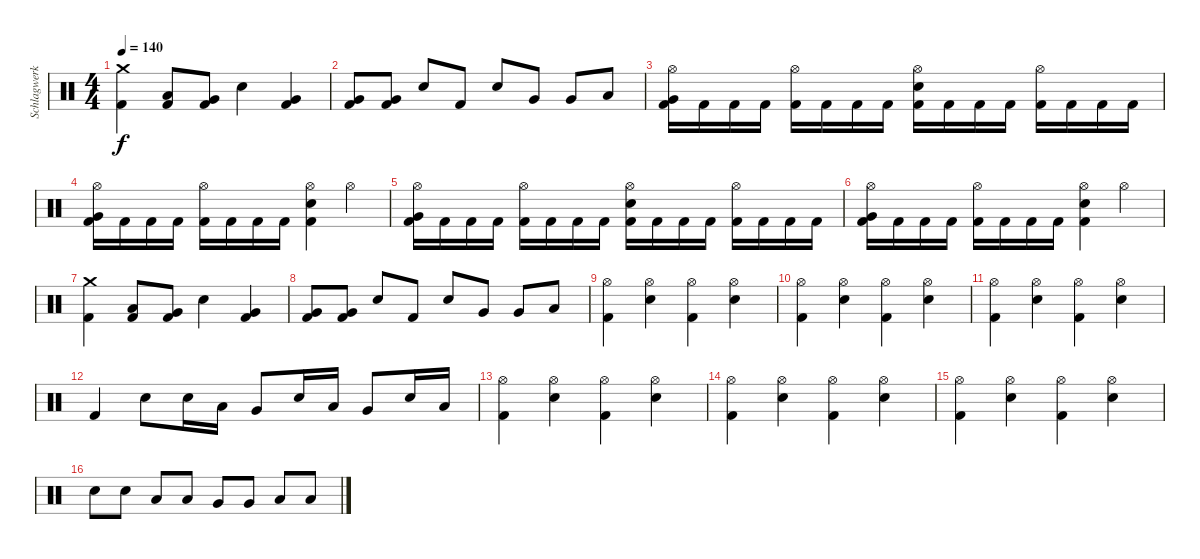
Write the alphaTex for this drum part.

\track ("Schlagwerk" "Schlagwerk") {instrument percussion}
\staff {score}
\articulation defaults
\ts (4 4)
\tempo 140
\clef neutral
\ks c
("Crash medium (hit)" "Kick (hit) 2").4{dy f} ("Low Tom (hit)" "Kick (hit) 2").8 ("Very Low Tom (hit)" "Kick (hit) 2").8 "Snare (hit) 2".4 ("Very Low Tom (hit)" "Kick (hit) 2").4 |
("Very Low Tom (hit)" "Kick (hit) 2").8 ("Very Low Tom (hit)" "Kick (hit) 2").8 "Snare (hit) 2".8 "Kick (hit) 2".8 "Snare (hit) 2".8 "Very Low Tom (hit)".8 "Very Low Tom (hit)".8 "Low Floor Tom (hit)".8 |
("Hi-Hat (open)" "Very Low Tom (hit)" "Kick (hit) 2").16 "Kick (hit) 2".16 "Kick (hit) 2".16 "Kick (hit) 2".16 ("Hi-Hat (open)" "Kick (hit) 2").16 "Kick (hit) 2".16 "Kick (hit) 2".16 "Kick (hit) 2".16 ("Hi-Hat (open)" "Snare (hit) 2" "Kick (hit) 2").16 "Kick (hit) 2".16 "Kick (hit) 2".16 "Kick (hit) 2".16 ("Hi-Hat (open)" "Kick (hit) 2").16 "Kick (hit) 2".16 "Kick (hit) 2".16 "Kick (hit) 2".16 |
("Hi-Hat (open)" "Very Low Tom (hit)" "Kick (hit) 2").16 "Kick (hit) 2".16 "Kick (hit) 2".16 "Kick (hit) 2".16 ("Hi-Hat (open)" "Kick (hit) 2").16 "Kick (hit) 2".16 "Kick (hit) 2".16 "Kick (hit) 2".16 ("Hi-Hat (open)" "Snare (hit) 2" "Kick (hit) 2").4 "Hi-Hat (open)".4 |
("Hi-Hat (open)" "Very Low Tom (hit)" "Kick (hit) 2").16 "Kick (hit) 2".16 "Kick (hit) 2".16 "Kick (hit) 2".16 ("Hi-Hat (open)" "Kick (hit) 2").16 "Kick (hit) 2".16 "Kick (hit) 2".16 "Kick (hit) 2".16 ("Hi-Hat (open)" "Snare (hit) 2" "Kick (hit) 2").16 "Kick (hit) 2".16 "Kick (hit) 2".16 "Kick (hit) 2".16 ("Hi-Hat (open)" "Kick (hit) 2").16 "Kick (hit) 2".16 "Kick (hit) 2".16 "Kick (hit) 2".16 |
("Hi-Hat (open)" "Very Low Tom (hit)" "Kick (hit) 2").16 "Kick (hit) 2".16 "Kick (hit) 2".16 "Kick (hit) 2".16 ("Hi-Hat (open)" "Kick (hit) 2").16 "Kick (hit) 2".16 "Kick (hit) 2".16 "Kick (hit) 2".16 ("Hi-Hat (open)" "Snare (hit) 2" "Kick (hit) 2").4 "Hi-Hat (open)".4 |
("Crash medium (hit)" "Kick (hit) 2").4 ("Low Tom (hit)" "Kick (hit) 2").8 ("Very Low Tom (hit)" "Kick (hit) 2").8 "Snare (hit) 2".4 ("Very Low Tom (hit)" "Kick (hit) 2").4 |
("Very Low Tom (hit)" "Kick (hit) 2").8 ("Very Low Tom (hit)" "Kick (hit) 2").8 "Snare (hit) 2".8 "Kick (hit) 2".8 "Snare (hit) 2".8 "Very Low Tom (hit)".8 "Very Low Tom (hit)".8 "Low Floor Tom (hit)".8 |
("Hi-Hat (open)" "Kick (hit) 2").4 ("Hi-Hat (open)" "Snare (hit) 2").4 ("Hi-Hat (open)" "Kick (hit) 2").4 ("Hi-Hat (open)" "Snare (hit) 2").4 |
("Hi-Hat (open)" "Kick (hit) 2").4 ("Hi-Hat (open)" "Snare (hit) 2").4 ("Hi-Hat (open)" "Kick (hit) 2").4 ("Hi-Hat (open)" "Snare (hit) 2").4 |
("Hi-Hat (open)" "Kick (hit) 2").4 ("Hi-Hat (open)" "Snare (hit) 2").4 ("Hi-Hat (open)" "Kick (hit) 2").4 ("Hi-Hat (open)" "Snare (hit) 2").4 |
"Kick (hit) 2".4 "Snare (hit) 2".8 "Snare (hit) 2".16 "Low Tom (hit)".16 "Very Low Tom (hit)".8 "Snare (hit) 2".16 "Low Tom (hit)".16 "Very Low Tom (hit)".8 "Snare (hit) 2".16 "Low Tom (hit)".16 |
("Hi-Hat (open)" "Kick (hit) 2").4 ("Hi-Hat (open)" "Snare (hit) 2").4 ("Hi-Hat (open)" "Kick (hit) 2").4 ("Hi-Hat (open)" "Snare (hit) 2").4 |
("Hi-Hat (open)" "Kick (hit) 2").4 ("Hi-Hat (open)" "Snare (hit) 2").4 ("Hi-Hat (open)" "Kick (hit) 2").4 ("Hi-Hat (open)" "Snare (hit) 2").4 |
("Hi-Hat (open)" "Kick (hit) 2").4 ("Hi-Hat (open)" "Snare (hit) 2").4 ("Hi-Hat (open)" "Kick (hit) 2").4 ("Hi-Hat (open)" "Snare (hit) 2").4 |
"Snare (hit) 2".8 "Snare (hit) 2".8 "Low Tom (hit)".8 "Low Tom (hit)".8 "Very Low Tom (hit)".8 "Very Low Tom (hit)".8 "Low Floor Tom (hit)".8 "Low Floor Tom (hit)".8
